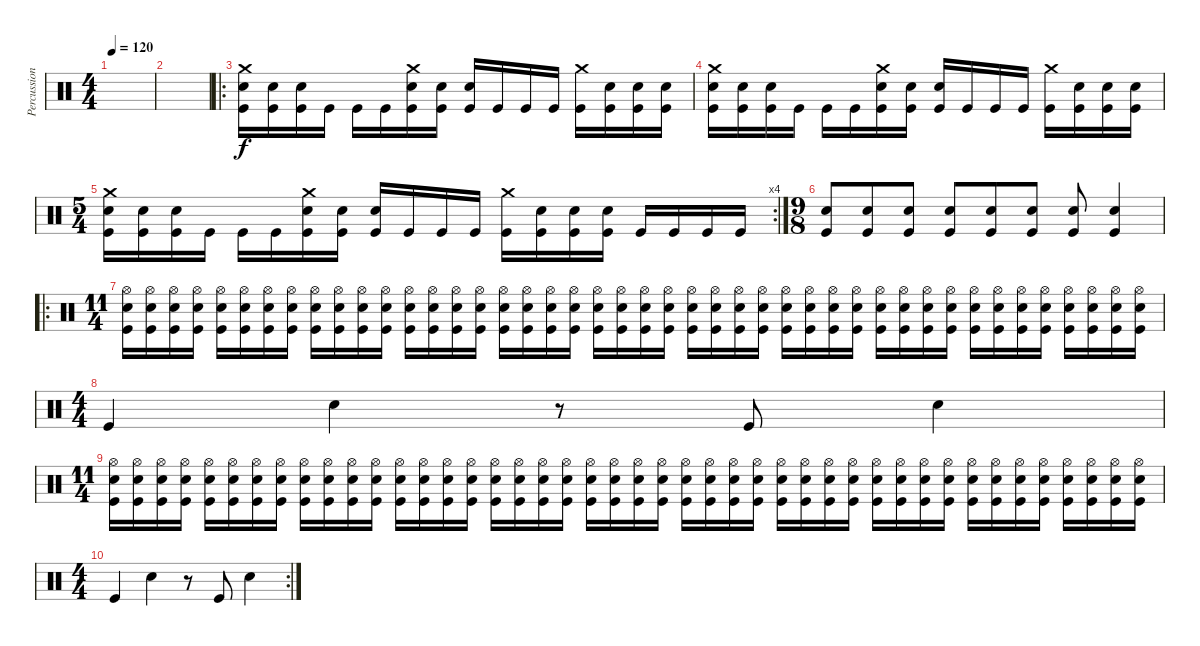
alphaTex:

\track ("Percussion" "Percussion") {instrument percussion}
\staff {score}
\articulation defaults
\ts (4 4)
\tempo 120
\clef neutral
\ks c
|
|
\ro
("Crash medium (hit)" "Snare (hit) 2" "Kick (hit)").16 ("Snare (hit) 2" "Kick (hit)").16 ("Snare (hit) 2" "Kick (hit)").16 "Kick (hit)".16 "Kick (hit)".16 "Kick (hit)".16 ("Crash medium (hit)" "Snare (hit) 2" "Kick (hit)").16 ("Snare (hit) 2" "Kick (hit)").16 ("Snare (hit) 2" "Kick (hit)").16 "Kick (hit)".16 "Kick (hit)".16 "Kick (hit)".16 ("Crash medium (hit)" "Kick (hit)").16 ("Snare (hit) 2" "Kick (hit)").16 ("Snare (hit) 2" "Kick (hit)").16 ("Snare (hit) 2" "Kick (hit)").16 |
("Crash medium (hit)" "Snare (hit) 2" "Kick (hit)").16 ("Snare (hit) 2" "Kick (hit)").16 ("Snare (hit) 2" "Kick (hit)").16 "Kick (hit)".16 "Kick (hit)".16 "Kick (hit)".16 ("Crash medium (hit)" "Snare (hit) 2" "Kick (hit)").16 ("Snare (hit) 2" "Kick (hit)").16 ("Snare (hit) 2" "Kick (hit)").16 "Kick (hit)".16 "Kick (hit)".16 "Kick (hit)".16 ("Crash medium (hit)" "Kick (hit)").16 ("Snare (hit) 2" "Kick (hit)").16 ("Snare (hit) 2" "Kick (hit)").16 ("Snare (hit) 2" "Kick (hit)").16 |
\rc 4
\ts (5 4)
("Crash medium (hit)" "Snare (hit) 2" "Kick (hit)").16 ("Snare (hit) 2" "Kick (hit)").16 ("Snare (hit) 2" "Kick (hit)").16 "Kick (hit)".16 "Kick (hit)".16 "Kick (hit)".16 ("Crash medium (hit)" "Snare (hit) 2" "Kick (hit)").16 ("Snare (hit) 2" "Kick (hit)").16 ("Snare (hit) 2" "Kick (hit)").16 "Kick (hit)".16 "Kick (hit)".16 "Kick (hit)".16 ("Crash medium (hit)" "Kick (hit)").16 ("Snare (hit) 2" "Kick (hit)").16 ("Snare (hit) 2" "Kick (hit)").16 ("Snare (hit) 2" "Kick (hit)").16 "Kick (hit)".16 "Kick (hit)".16 "Kick (hit)".16 "Kick (hit)".16 |
\ts (9 8)
("Snare (hit) 2" "Kick (hit)").8 ("Snare (hit) 2" "Kick (hit)").8 ("Snare (hit) 2" "Kick (hit)").8 ("Snare (hit) 2" "Kick (hit)").8 ("Snare (hit) 2" "Kick (hit)").8 ("Snare (hit) 2" "Kick (hit)").8 ("Snare (hit) 2" "Kick (hit)").8 ("Snare (hit) 2" "Kick (hit)").4 |
\ro
\ts (11 4)
("Hi-Hat (open)" "Snare (hit) 2" "Kick (hit)").16 ("Hi-Hat (open)" "Snare (hit) 2" "Kick (hit)").16 ("Hi-Hat (open)" "Snare (hit) 2" "Kick (hit)").16 ("Hi-Hat (open)" "Snare (hit) 2" "Kick (hit)").16 ("Hi-Hat (open)" "Snare (hit) 2" "Kick (hit)").16 ("Hi-Hat (open)" "Snare (hit) 2" "Kick (hit)").16 ("Hi-Hat (open)" "Snare (hit) 2" "Kick (hit)").16 ("Hi-Hat (open)" "Snare (hit) 2" "Kick (hit)").16 ("Hi-Hat (open)" "Snare (hit) 2" "Kick (hit)").16 ("Hi-Hat (open)" "Snare (hit) 2" "Kick (hit)").16 ("Hi-Hat (open)" "Snare (hit) 2" "Kick (hit)").16 ("Hi-Hat (open)" "Snare (hit) 2" "Kick (hit)").16 ("Hi-Hat (open)" "Snare (hit) 2" "Kick (hit)").16 ("Hi-Hat (open)" "Snare (hit) 2" "Kick (hit)").16 ("Hi-Hat (open)" "Snare (hit) 2" "Kick (hit)").16 ("Hi-Hat (open)" "Snare (hit) 2" "Kick (hit)").16 ("Hi-Hat (open)" "Snare (hit) 2" "Kick (hit)").16 ("Hi-Hat (open)" "Snare (hit) 2" "Kick (hit)").16 ("Hi-Hat (open)" "Snare (hit) 2" "Kick (hit)").16 ("Hi-Hat (open)" "Snare (hit) 2" "Kick (hit)").16 ("Hi-Hat (open)" "Snare (hit) 2" "Kick (hit)").16 ("Hi-Hat (open)" "Snare (hit) 2" "Kick (hit)").16 ("Hi-Hat (open)" "Snare (hit) 2" "Kick (hit)").16 ("Hi-Hat (open)" "Snare (hit) 2" "Kick (hit)").16 ("Hi-Hat (open)" "Snare (hit) 2" "Kick (hit)").16 ("Hi-Hat (open)" "Snare (hit) 2" "Kick (hit)").16 ("Hi-Hat (open)" "Snare (hit) 2" "Kick (hit)").16 ("Hi-Hat (open)" "Snare (hit) 2" "Kick (hit)").16 ("Hi-Hat (open)" "Snare (hit) 2" "Kick (hit)").16 ("Hi-Hat (open)" "Snare (hit) 2" "Kick (hit)").16 ("Hi-Hat (open)" "Snare (hit) 2" "Kick (hit)").16 ("Hi-Hat (open)" "Snare (hit) 2" "Kick (hit)").16 ("Hi-Hat (open)" "Snare (hit) 2" "Kick (hit)").16 ("Hi-Hat (open)" "Snare (hit) 2" "Kick (hit)").16 ("Hi-Hat (open)" "Snare (hit) 2" "Kick (hit)").16 ("Hi-Hat (open)" "Snare (hit) 2" "Kick (hit)").16 ("Hi-Hat (open)" "Snare (hit) 2" "Kick (hit)").16 ("Hi-Hat (open)" "Snare (hit) 2" "Kick (hit)").16 ("Hi-Hat (open)" "Snare (hit) 2" "Kick (hit)").16 ("Hi-Hat (open)" "Snare (hit) 2" "Kick (hit)").16 ("Hi-Hat (open)" "Snare (hit) 2" "Kick (hit)").16 ("Hi-Hat (open)" "Snare (hit) 2" "Kick (hit)").16 ("Hi-Hat (open)" "Snare (hit) 2" "Kick (hit)").16 ("Hi-Hat (open)" "Snare (hit) 2" "Kick (hit)").16 |
\ts (4 4)
"Kick (hit)".4 "Snare (hit) 2".4 r.8 "Kick (hit)".8 "Snare (hit) 2".4 |
\ts (11 4)
("Hi-Hat (open)" "Snare (hit) 2" "Kick (hit)").16 ("Hi-Hat (open)" "Snare (hit) 2" "Kick (hit)").16 ("Hi-Hat (open)" "Snare (hit) 2" "Kick (hit)").16 ("Hi-Hat (open)" "Snare (hit) 2" "Kick (hit)").16 ("Hi-Hat (open)" "Snare (hit) 2" "Kick (hit)").16 ("Hi-Hat (open)" "Snare (hit) 2" "Kick (hit)").16 ("Hi-Hat (open)" "Snare (hit) 2" "Kick (hit)").16 ("Hi-Hat (open)" "Snare (hit) 2" "Kick (hit)").16 ("Hi-Hat (open)" "Snare (hit) 2" "Kick (hit)").16 ("Hi-Hat (open)" "Snare (hit) 2" "Kick (hit)").16 ("Hi-Hat (open)" "Snare (hit) 2" "Kick (hit)").16 ("Hi-Hat (open)" "Snare (hit) 2" "Kick (hit)").16 ("Hi-Hat (open)" "Snare (hit) 2" "Kick (hit)").16 ("Hi-Hat (open)" "Snare (hit) 2" "Kick (hit)").16 ("Hi-Hat (open)" "Snare (hit) 2" "Kick (hit)").16 ("Hi-Hat (open)" "Snare (hit) 2" "Kick (hit)").16 ("Hi-Hat (open)" "Snare (hit) 2" "Kick (hit)").16 ("Hi-Hat (open)" "Snare (hit) 2" "Kick (hit)").16 ("Hi-Hat (open)" "Snare (hit) 2" "Kick (hit)").16 ("Hi-Hat (open)" "Snare (hit) 2" "Kick (hit)").16 ("Hi-Hat (open)" "Snare (hit) 2" "Kick (hit)").16 ("Hi-Hat (open)" "Snare (hit) 2" "Kick (hit)").16 ("Hi-Hat (open)" "Snare (hit) 2" "Kick (hit)").16 ("Hi-Hat (open)" "Snare (hit) 2" "Kick (hit)").16 ("Hi-Hat (open)" "Snare (hit) 2" "Kick (hit)").16 ("Hi-Hat (open)" "Snare (hit) 2" "Kick (hit)").16 ("Hi-Hat (open)" "Snare (hit) 2" "Kick (hit)").16 ("Hi-Hat (open)" "Snare (hit) 2" "Kick (hit)").16 ("Hi-Hat (open)" "Snare (hit) 2" "Kick (hit)").16 ("Hi-Hat (open)" "Snare (hit) 2" "Kick (hit)").16 ("Hi-Hat (open)" "Snare (hit) 2" "Kick (hit)").16 ("Hi-Hat (open)" "Snare (hit) 2" "Kick (hit)").16 ("Hi-Hat (open)" "Snare (hit) 2" "Kick (hit)").16 ("Hi-Hat (open)" "Snare (hit) 2" "Kick (hit)").16 ("Hi-Hat (open)" "Snare (hit) 2" "Kick (hit)").16 ("Hi-Hat (open)" "Snare (hit) 2" "Kick (hit)").16 ("Hi-Hat (open)" "Snare (hit) 2" "Kick (hit)").16 ("Hi-Hat (open)" "Snare (hit) 2" "Kick (hit)").16 ("Hi-Hat (open)" "Snare (hit) 2" "Kick (hit)").16 ("Hi-Hat (open)" "Snare (hit) 2" "Kick (hit)").16 ("Hi-Hat (open)" "Snare (hit) 2" "Kick (hit)").16 ("Hi-Hat (open)" "Snare (hit) 2" "Kick (hit)").16 ("Hi-Hat (open)" "Snare (hit) 2" "Kick (hit)").16 ("Hi-Hat (open)" "Snare (hit) 2" "Kick (hit)").16 |
\rc 2
\ts (4 4)
"Kick (hit)".4 "Snare (hit) 2".4 r.8 "Kick (hit)".8 "Snare (hit) 2".4
